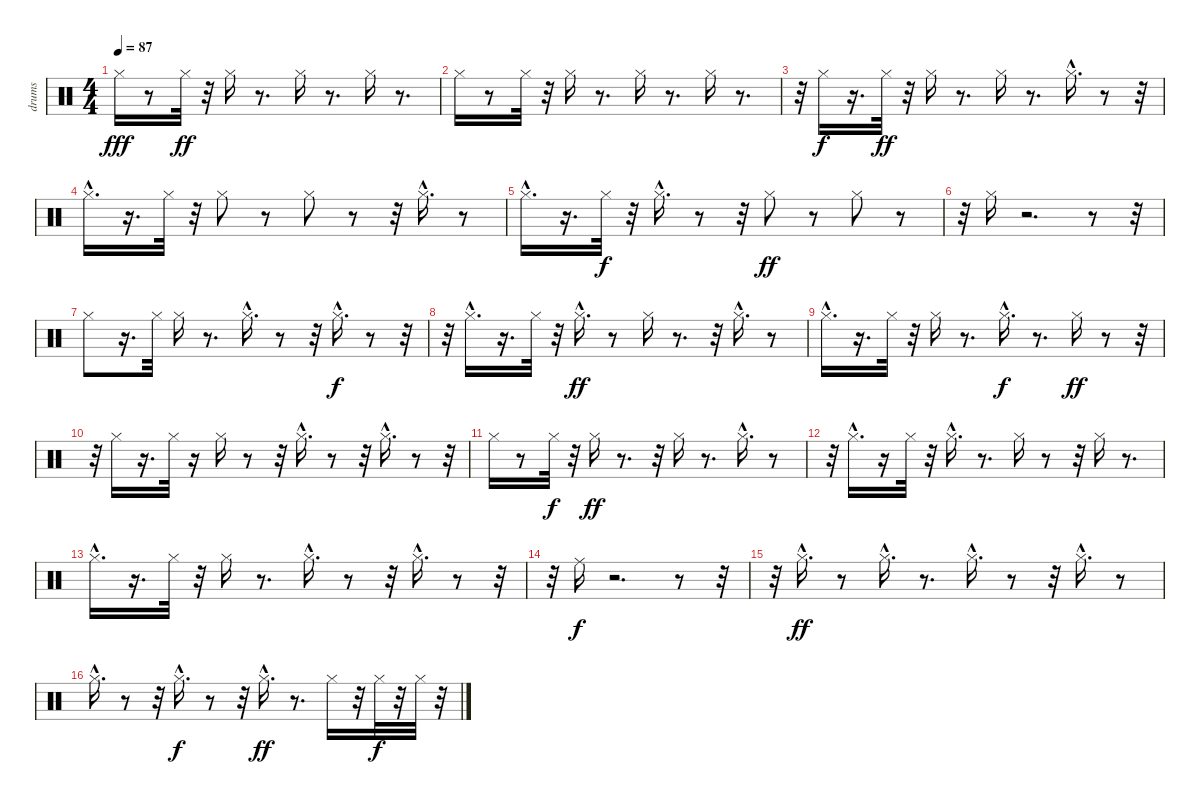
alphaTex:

\track ("drums" "drums") {instrument percussion}
\staff {score}
\articulation defaults
\ts (4 4)
\tempo 87
\clef neutral
\ks c "Hi-Hat (closed)".16{dy fff}
r.8 "Hi-Hat (closed)".32{dy ff} r.32 "Hi-Hat (closed)".16 r.8{d} "Hi-Hat (closed)".16 r.8{d} "Hi-Hat (closed)".16 r.8{d} |
"Hi-Hat (closed)".16 r.8 "Hi-Hat (closed)".32 r.32 "Hi-Hat (closed)".16 r.8{d} "Hi-Hat (closed)".16 r.8{d} "Hi-Hat (closed)".16 r.8{d} |
r.32 "Hi-Hat (closed)".16{dy f} r.16{d} "Hi-Hat (closed)".32{dy ff} r.32 "Hi-Hat (closed)".16 r.8{d} "Hi-Hat (closed)".16 r.8{d} "Hi-Hat (closed)"{hac}.16{d} r.8 r.32 |
"Hi-Hat (closed)"{hac}.16{d} r.16{d} "Hi-Hat (closed)".32 r.32 "Hi-Hat (closed)".8 r.8 "Hi-Hat (closed)".8 r.8 r.32 "Hi-Hat (closed)"{hac}.16{d} r.8 |
"Hi-Hat (closed)"{hac}.16{d} r.16{d} "Hi-Hat (closed)".32{dy f} r.32 "Hi-Hat (closed)"{hac}.16{d} r.8 r.32 "Hi-Hat (closed)".8{dy ff} r.8 "Hi-Hat (closed)".8 r.8 |
r.32 "Hi-Hat (closed)".16 r.2{d} r.8 r.32 |
"Hi-Hat (closed)".8 r.16{d} "Hi-Hat (closed)".32 "Hi-Hat (closed)".16 r.8{d} "Hi-Hat (closed)"{hac}.16{d} r.8 r.32 "Hi-Hat (closed)"{hac}.16{d dy f} r.8 r.32 |
r.32 "Hi-Hat (closed)"{hac}.16{d} r.16{d} "Hi-Hat (closed)".32 r.32 "Hi-Hat (closed)"{hac}.16{d dy ff} r.8 "Hi-Hat (closed)".16 r.8{d} r.32 "Hi-Hat (closed)"{hac}.16{d} r.8 |
"Hi-Hat (closed)"{hac}.16{d} r.16{d} "Hi-Hat (closed)".32 r.32 "Hi-Hat (closed)".16 r.8{d} "Hi-Hat (closed)"{hac}.16{d dy f} r.8{d} "Hi-Hat (closed)".16{dy ff} r.8 r.32 |
r.32 "Hi-Hat (closed)".16 r.16{d} "Hi-Hat (closed)".32 r.16 "Hi-Hat (closed)".16 r.8 r.32 "Hi-Hat (closed)"{hac}.16{d} r.8 r.32 "Hi-Hat (closed)"{hac}.16{d} r.8 r.32 |
"Hi-Hat (closed)".16 r.8 "Hi-Hat (closed)".32{dy f} r.32 "Hi-Hat (closed)".16{dy ff} r.8{d} r.32 "Hi-Hat (closed)".16 r.8{d} "Hi-Hat (closed)"{hac}.16{d} r.8 |
r.32 "Hi-Hat (closed)"{hac}.16{d} r.16 "Hi-Hat (closed)".32 r.32 "Hi-Hat (closed)"{hac}.16{d} r.8{d} "Hi-Hat (closed)".16 r.8 r.32 "Hi-Hat (closed)".16 r.8{d} |
"Hi-Hat (closed)"{hac}.16{d} r.16{d} "Hi-Hat (closed)".32 r.32 "Hi-Hat (closed)".16 r.8{d} "Hi-Hat (closed)"{hac}.16{d} r.8 r.32 "Hi-Hat (closed)"{hac}.16{d} r.8 r.32 |
r.32 "Ride (middle)".16{dy f} r.2{d} r.8 r.32 |
r.32 "Hi-Hat (closed)"{hac}.16{d dy ff} r.8 "Hi-Hat (closed)"{hac}.16{d} r.8{d} "Hi-Hat (closed)"{hac}.16{d} r.8 r.32 "Hi-Hat (closed)"{hac}.16{d} r.8 |
"Hi-Hat (closed)"{hac}.16{d} r.8 r.32 "Hi-Hat (closed)"{hac}.16{d dy f} r.8 r.32 "Hi-Hat (closed)"{hac}.16{d dy ff} r.8{d} "Hi-Hat (closed)".16 r.32 "Hi-Hat (closed)".32{dy f} r.32 "Hi-Hat (closed)".32 r.32
